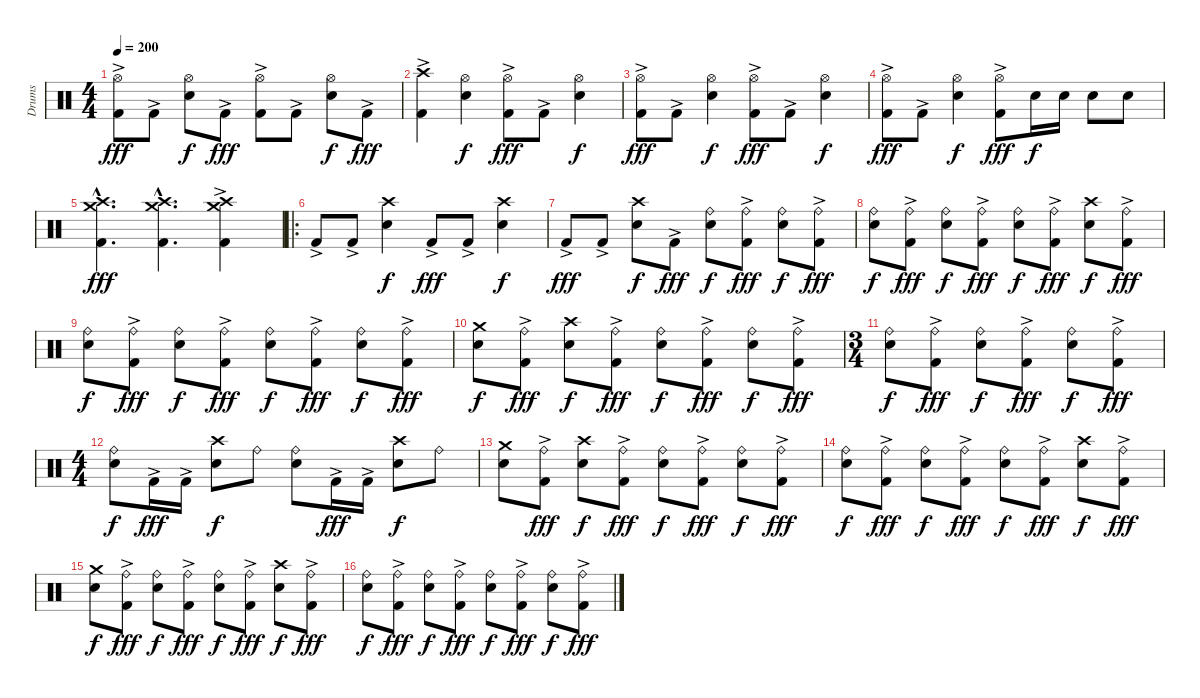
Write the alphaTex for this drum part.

\track ("Drums" "Drums") {instrument percussion}
\staff {score}
\articulation defaults
\ts (4 4)
\tempo 200
\clef neutral
\ks c
("Hi-Hat (open)" "Kick (hit) 2"{ac}).8{dy fff} "Kick (hit) 2"{ac}.8 ("Hi-Hat (open)" "Snare (hit) 2").8{dy f} "Kick (hit) 2"{ac}.8{dy fff} ("Hi-Hat (open)" "Kick (hit) 2"{ac}).8 "Kick (hit) 2"{ac}.8 ("Hi-Hat (open)" "Snare (hit) 2").8{dy f} "Kick (hit) 2"{ac}.8{dy fff} |
("Crash high (hit)" "Kick (hit) 2"{ac}).4 ("Hi-Hat (open)" "Snare (hit) 2").4{dy f} ("Hi-Hat (open)" "Kick (hit) 2"{ac}).8{dy fff} "Kick (hit) 2"{ac}.8 ("Hi-Hat (open)" "Snare (hit) 2").4{dy f} |
("Hi-Hat (open)" "Kick (hit) 2"{ac}).8{dy fff} "Kick (hit) 2"{ac}.8 ("Hi-Hat (open)" "Snare (hit) 2").4{dy f} ("Hi-Hat (open)" "Kick (hit) 2"{ac}).8{dy fff} "Kick (hit) 2"{ac}.8 ("Hi-Hat (open)" "Snare (hit) 2").4{dy f} |
("Hi-Hat (open)" "Kick (hit) 2"{ac}).8{dy fff} "Kick (hit) 2"{ac}.8 ("Hi-Hat (open)" "Snare (hit) 2").4{dy f} ("Hi-Hat (open)" "Kick (hit) 2"{ac}).8{dy fff} "Snare (hit) 2".16{dy f} "Snare (hit) 2".16 "Snare (hit) 2".8 "Snare (hit) 2".8 |
("Crash high (hit)"{hac} "Crash medium (hit)"{hac} "Kick (hit) 2"{hac}).4{d dy fff} ("Crash high (hit)"{hac} "Crash medium (hit)"{hac} "Kick (hit) 2"{hac}).4{d} ("Crash high (hit)" "Crash medium (hit)" "Kick (hit) 2"{ac}).4 |
\ro "Kick (hit) 2"{ac}.8 "Kick (hit) 2"{ac}.8
("Crash high (hit)" "Snare (hit) 2").4{dy f} "Kick (hit) 2"{ac}.8{dy fff} "Kick (hit) 2"{ac}.8 ("Crash high (hit)" "Snare (hit) 2").4{dy f} |
"Kick (hit) 2"{ac}.8{dy fff} "Kick (hit) 2"{ac}.8 ("Crash high (hit)" "Snare (hit) 2").8{dy f} "Kick (hit) 2"{ac}.8{dy fff} ("Ride (bell)" "Snare (hit) 2").8{dy f} ("Ride (bell)" "Kick (hit) 2"{ac}).8{dy fff} ("Ride (bell)" "Snare (hit) 2").8{dy f} ("Ride (bell)" "Kick (hit) 2"{ac}).8{dy fff} |
("Ride (bell)" "Snare (hit) 2").8{dy f} ("Ride (bell)" "Kick (hit) 2"{ac}).8{dy fff} ("Ride (bell)" "Snare (hit) 2").8{dy f} ("Ride (bell)" "Kick (hit) 2"{ac}).8{dy fff} ("Ride (bell)" "Snare (hit) 2").8{dy f} ("Ride (bell)" "Kick (hit) 2"{ac}).8{dy fff} ("Crash high (hit)" "Snare (hit) 2").8{dy f} ("Ride (bell)" "Kick (hit) 2"{ac}).8{dy fff} |
("Ride (bell)" "Snare (hit) 2").8{dy f} ("Ride (bell)" "Kick (hit) 2"{ac}).8{dy fff} ("Ride (bell)" "Snare (hit) 2").8{dy f} ("Ride (bell)" "Kick (hit) 2"{ac}).8{dy fff} ("Ride (bell)" "Snare (hit) 2").8{dy f} ("Ride (bell)" "Kick (hit) 2"{ac}).8{dy fff} ("Ride (bell)" "Snare (hit) 2").8{dy f} ("Ride (bell)" "Kick (hit) 2"{ac}).8{dy fff} |
("Crash medium (hit)" "Snare (hit) 2").8{dy f} ("Ride (bell)" "Kick (hit) 2"{ac}).8{dy fff} ("Crash high (hit)" "Snare (hit) 2").8{dy f} ("Ride (bell)" "Kick (hit) 2"{ac}).8{dy fff} ("Ride (bell)" "Snare (hit) 2").8{dy f} ("Ride (bell)" "Kick (hit) 2"{ac}).8{dy fff} ("Ride (bell)" "Snare (hit) 2").8{dy f} ("Ride (bell)" "Kick (hit) 2"{ac}).8{dy fff} |
\ts (3 4)
("Ride (bell)" "Snare (hit) 2").8{dy f} ("Ride (bell)" "Kick (hit) 2"{ac}).8{dy fff} ("Ride (bell)" "Snare (hit) 2").8{dy f} ("Ride (bell)" "Kick (hit) 2"{ac}).8{dy fff} ("Ride (bell)" "Snare (hit) 2").8{dy f} ("Ride (bell)" "Kick (hit) 2"{ac}).8{dy fff} |
\ts (4 4)
("Ride (bell)" "Snare (hit) 2").8{dy f} "Kick (hit) 2"{ac}.16{dy fff} "Kick (hit) 2"{ac}.16 ("Crash high (hit)" "Snare (hit) 2").8{dy f} "Ride (bell)".8 ("Ride (bell)" "Snare (hit) 2").8 "Kick (hit) 2"{ac}.16{dy fff} "Kick (hit) 2"{ac}.16 ("Crash high (hit)" "Snare (hit) 2").8{dy f} "Ride (bell)".8 |
("Crash medium (hit)" "Snare (hit) 2").8 ("Ride (bell)" "Kick (hit) 2"{ac}).8{dy fff} ("Crash high (hit)" "Snare (hit) 2").8{dy f} ("Ride (bell)" "Kick (hit) 2"{ac}).8{dy fff} ("Ride (bell)" "Snare (hit) 2").8{dy f} ("Ride (bell)" "Kick (hit) 2"{ac}).8{dy fff} ("Ride (bell)" "Snare (hit) 2").8{dy f} ("Ride (bell)" "Kick (hit) 2"{ac}).8{dy fff} |
("Ride (bell)" "Snare (hit) 2").8{dy f} ("Ride (bell)" "Kick (hit) 2"{ac}).8{dy fff} ("Ride (bell)" "Snare (hit) 2").8{dy f} ("Ride (bell)" "Kick (hit) 2"{ac}).8{dy fff} ("Ride (bell)" "Snare (hit) 2").8{dy f} ("Ride (bell)" "Kick (hit) 2"{ac}).8{dy fff} ("Crash high (hit)" "Snare (hit) 2").8{dy f} ("Ride (bell)" "Kick (hit) 2"{ac}).8{dy fff} |
("Crash medium (hit)" "Snare (hit) 2").8{dy f} ("Ride (bell)" "Kick (hit) 2"{ac}).8{dy fff} ("Ride (bell)" "Snare (hit) 2").8{dy f} ("Ride (bell)" "Kick (hit) 2"{ac}).8{dy fff} ("Ride (bell)" "Snare (hit) 2").8{dy f} ("Ride (bell)" "Kick (hit) 2"{ac}).8{dy fff} ("Crash high (hit)" "Snare (hit) 2").8{dy f} ("Ride (bell)" "Kick (hit) 2"{ac}).8{dy fff} |
("Ride (bell)" "Snare (hit) 2").8{dy f} ("Ride (bell)" "Kick (hit) 2"{ac}).8{dy fff} ("Ride (bell)" "Snare (hit) 2").8{dy f} ("Ride (bell)" "Kick (hit) 2"{ac}).8{dy fff} ("Ride (bell)" "Snare (hit) 2").8{dy f} ("Ride (bell)" "Kick (hit) 2"{ac}).8{dy fff} ("Ride (bell)" "Snare (hit) 2").8{dy f} ("Ride (bell)" "Kick (hit) 2"{ac}).8{dy fff}
